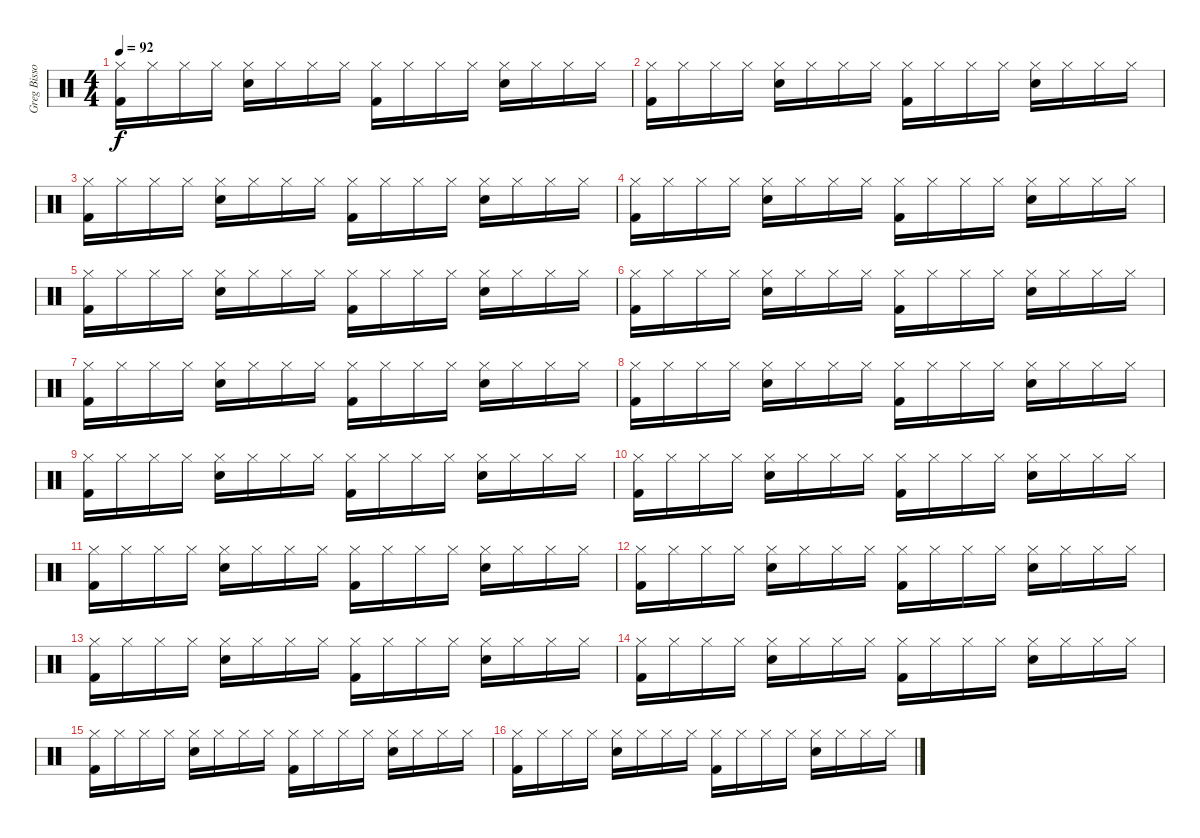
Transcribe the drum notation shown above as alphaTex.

\track ("Greg Bissonette" "Greg Bisso") {instrument percussion}
\staff {score}
\articulation defaults
\ts (4 4)
\tempo 92
\clef neutral
\ks c
("Hi-Hat (closed)" "Kick (hit) 2").16{dy f} "Hi-Hat (closed)".16 "Hi-Hat (closed)".16 "Hi-Hat (closed)".16 ("Hi-Hat (closed)" "Snare (hit) 2").16 "Hi-Hat (closed)".16 "Hi-Hat (closed)".16 "Hi-Hat (closed)".16 ("Hi-Hat (closed)" "Kick (hit) 2").16 "Hi-Hat (closed)".16 "Hi-Hat (closed)".16 "Hi-Hat (closed)".16 ("Hi-Hat (closed)" "Snare (hit) 2").16 "Hi-Hat (closed)".16 "Hi-Hat (closed)".16 "Hi-Hat (closed)".16 |
("Hi-Hat (closed)" "Kick (hit) 2").16 "Hi-Hat (closed)".16 "Hi-Hat (closed)".16 "Hi-Hat (closed)".16 ("Hi-Hat (closed)" "Snare (hit) 2").16 "Hi-Hat (closed)".16 "Hi-Hat (closed)".16 "Hi-Hat (closed)".16 ("Hi-Hat (closed)" "Kick (hit) 2").16 "Hi-Hat (closed)".16 "Hi-Hat (closed)".16 "Hi-Hat (closed)".16 ("Hi-Hat (closed)" "Snare (hit) 2").16 "Hi-Hat (closed)".16 "Hi-Hat (closed)".16 "Hi-Hat (closed)".16 |
("Hi-Hat (closed)" "Kick (hit) 2").16 "Hi-Hat (closed)".16 "Hi-Hat (closed)".16 "Hi-Hat (closed)".16 ("Hi-Hat (closed)" "Snare (hit) 2").16 "Hi-Hat (closed)".16 "Hi-Hat (closed)".16 "Hi-Hat (closed)".16 ("Hi-Hat (closed)" "Kick (hit) 2").16 "Hi-Hat (closed)".16 "Hi-Hat (closed)".16 "Hi-Hat (closed)".16 ("Hi-Hat (closed)" "Snare (hit) 2").16 "Hi-Hat (closed)".16 "Hi-Hat (closed)".16 "Hi-Hat (closed)".16 |
("Hi-Hat (closed)" "Kick (hit) 2").16 "Hi-Hat (closed)".16 "Hi-Hat (closed)".16 "Hi-Hat (closed)".16 ("Hi-Hat (closed)" "Snare (hit) 2").16 "Hi-Hat (closed)".16 "Hi-Hat (closed)".16 "Hi-Hat (closed)".16 ("Hi-Hat (closed)" "Kick (hit) 2").16 "Hi-Hat (closed)".16 "Hi-Hat (closed)".16 "Hi-Hat (closed)".16 ("Hi-Hat (closed)" "Snare (hit) 2").16 "Hi-Hat (closed)".16 "Hi-Hat (closed)".16 "Hi-Hat (closed)".16 |
("Hi-Hat (closed)" "Kick (hit) 2").16 "Hi-Hat (closed)".16 "Hi-Hat (closed)".16 "Hi-Hat (closed)".16 ("Hi-Hat (closed)" "Snare (hit) 2").16 "Hi-Hat (closed)".16 "Hi-Hat (closed)".16 "Hi-Hat (closed)".16 ("Hi-Hat (closed)" "Kick (hit) 2").16 "Hi-Hat (closed)".16 "Hi-Hat (closed)".16 "Hi-Hat (closed)".16 ("Hi-Hat (closed)" "Snare (hit) 2").16 "Hi-Hat (closed)".16 "Hi-Hat (closed)".16 "Hi-Hat (closed)".16 |
("Hi-Hat (closed)" "Kick (hit) 2").16 "Hi-Hat (closed)".16 "Hi-Hat (closed)".16 "Hi-Hat (closed)".16 ("Hi-Hat (closed)" "Snare (hit) 2").16 "Hi-Hat (closed)".16 "Hi-Hat (closed)".16 "Hi-Hat (closed)".16 ("Hi-Hat (closed)" "Kick (hit) 2").16 "Hi-Hat (closed)".16 "Hi-Hat (closed)".16 "Hi-Hat (closed)".16 ("Hi-Hat (closed)" "Snare (hit) 2").16 "Hi-Hat (closed)".16 "Hi-Hat (closed)".16 "Hi-Hat (closed)".16 |
("Hi-Hat (closed)" "Kick (hit) 2").16 "Hi-Hat (closed)".16 "Hi-Hat (closed)".16 "Hi-Hat (closed)".16 ("Hi-Hat (closed)" "Snare (hit) 2").16 "Hi-Hat (closed)".16 "Hi-Hat (closed)".16 "Hi-Hat (closed)".16 ("Hi-Hat (closed)" "Kick (hit) 2").16 "Hi-Hat (closed)".16 "Hi-Hat (closed)".16 "Hi-Hat (closed)".16 ("Hi-Hat (closed)" "Snare (hit) 2").16 "Hi-Hat (closed)".16 "Hi-Hat (closed)".16 "Hi-Hat (closed)".16 |
("Hi-Hat (closed)" "Kick (hit) 2").16 "Hi-Hat (closed)".16 "Hi-Hat (closed)".16 "Hi-Hat (closed)".16 ("Hi-Hat (closed)" "Snare (hit) 2").16 "Hi-Hat (closed)".16 "Hi-Hat (closed)".16 "Hi-Hat (closed)".16 ("Hi-Hat (closed)" "Kick (hit) 2").16 "Hi-Hat (closed)".16 "Hi-Hat (closed)".16 "Hi-Hat (closed)".16 ("Hi-Hat (closed)" "Snare (hit) 2").16 "Hi-Hat (closed)".16 "Hi-Hat (closed)".16 "Hi-Hat (closed)".16 |
("Hi-Hat (closed)" "Kick (hit) 2").16 "Hi-Hat (closed)".16 "Hi-Hat (closed)".16 "Hi-Hat (closed)".16 ("Hi-Hat (closed)" "Snare (hit) 2").16 "Hi-Hat (closed)".16 "Hi-Hat (closed)".16 "Hi-Hat (closed)".16 ("Hi-Hat (closed)" "Kick (hit) 2").16 "Hi-Hat (closed)".16 "Hi-Hat (closed)".16 "Hi-Hat (closed)".16 ("Hi-Hat (closed)" "Snare (hit) 2").16 "Hi-Hat (closed)".16 "Hi-Hat (closed)".16 "Hi-Hat (closed)".16 |
("Hi-Hat (closed)" "Kick (hit) 2").16 "Hi-Hat (closed)".16 "Hi-Hat (closed)".16 "Hi-Hat (closed)".16 ("Hi-Hat (closed)" "Snare (hit) 2").16 "Hi-Hat (closed)".16 "Hi-Hat (closed)".16 "Hi-Hat (closed)".16 ("Hi-Hat (closed)" "Kick (hit) 2").16 "Hi-Hat (closed)".16 "Hi-Hat (closed)".16 "Hi-Hat (closed)".16 ("Hi-Hat (closed)" "Snare (hit) 2").16 "Hi-Hat (closed)".16 "Hi-Hat (closed)".16 "Hi-Hat (closed)".16 |
("Hi-Hat (closed)" "Kick (hit) 2").16 "Hi-Hat (closed)".16 "Hi-Hat (closed)".16 "Hi-Hat (closed)".16 ("Hi-Hat (closed)" "Snare (hit) 2").16 "Hi-Hat (closed)".16 "Hi-Hat (closed)".16 "Hi-Hat (closed)".16 ("Hi-Hat (closed)" "Kick (hit) 2").16 "Hi-Hat (closed)".16 "Hi-Hat (closed)".16 "Hi-Hat (closed)".16 ("Hi-Hat (closed)" "Snare (hit) 2").16 "Hi-Hat (closed)".16 "Hi-Hat (closed)".16 "Hi-Hat (closed)".16 |
("Hi-Hat (closed)" "Kick (hit) 2").16 "Hi-Hat (closed)".16 "Hi-Hat (closed)".16 "Hi-Hat (closed)".16 ("Hi-Hat (closed)" "Snare (hit) 2").16 "Hi-Hat (closed)".16 "Hi-Hat (closed)".16 "Hi-Hat (closed)".16 ("Hi-Hat (closed)" "Kick (hit) 2").16 "Hi-Hat (closed)".16 "Hi-Hat (closed)".16 "Hi-Hat (closed)".16 ("Hi-Hat (closed)" "Snare (hit) 2").16 "Hi-Hat (closed)".16 "Hi-Hat (closed)".16 "Hi-Hat (closed)".16 |
("Hi-Hat (closed)" "Kick (hit) 2").16 "Hi-Hat (closed)".16 "Hi-Hat (closed)".16 "Hi-Hat (closed)".16 ("Hi-Hat (closed)" "Snare (hit) 2").16 "Hi-Hat (closed)".16 "Hi-Hat (closed)".16 "Hi-Hat (closed)".16 ("Hi-Hat (closed)" "Kick (hit) 2").16 "Hi-Hat (closed)".16 "Hi-Hat (closed)".16 "Hi-Hat (closed)".16 ("Hi-Hat (closed)" "Snare (hit) 2").16 "Hi-Hat (closed)".16 "Hi-Hat (closed)".16 "Hi-Hat (closed)".16 |
("Hi-Hat (closed)" "Kick (hit) 2").16 "Hi-Hat (closed)".16 "Hi-Hat (closed)".16 "Hi-Hat (closed)".16 ("Hi-Hat (closed)" "Snare (hit) 2").16 "Hi-Hat (closed)".16 "Hi-Hat (closed)".16 "Hi-Hat (closed)".16 ("Hi-Hat (closed)" "Kick (hit) 2").16 "Hi-Hat (closed)".16 "Hi-Hat (closed)".16 "Hi-Hat (closed)".16 ("Hi-Hat (closed)" "Snare (hit) 2").16 "Hi-Hat (closed)".16 "Hi-Hat (closed)".16 "Hi-Hat (closed)".16 |
("Hi-Hat (closed)" "Kick (hit) 2").16 "Hi-Hat (closed)".16 "Hi-Hat (closed)".16 "Hi-Hat (closed)".16 ("Hi-Hat (closed)" "Snare (hit) 2").16 "Hi-Hat (closed)".16 "Hi-Hat (closed)".16 "Hi-Hat (closed)".16 ("Hi-Hat (closed)" "Kick (hit) 2").16 "Hi-Hat (closed)".16 "Hi-Hat (closed)".16 "Hi-Hat (closed)".16 ("Hi-Hat (closed)" "Snare (hit) 2").16 "Hi-Hat (closed)".16 "Hi-Hat (closed)".16 "Hi-Hat (closed)".16 |
("Hi-Hat (closed)" "Kick (hit) 2").16 "Hi-Hat (closed)".16 "Hi-Hat (closed)".16 "Hi-Hat (closed)".16 ("Hi-Hat (closed)" "Snare (hit) 2").16 "Hi-Hat (closed)".16 "Hi-Hat (closed)".16 "Hi-Hat (closed)".16 ("Hi-Hat (closed)" "Kick (hit) 2").16 "Hi-Hat (closed)".16 "Hi-Hat (closed)".16 "Hi-Hat (closed)".16 ("Hi-Hat (closed)" "Snare (hit) 2").16 "Hi-Hat (closed)".16 "Hi-Hat (closed)".16 "Hi-Hat (closed)".16
